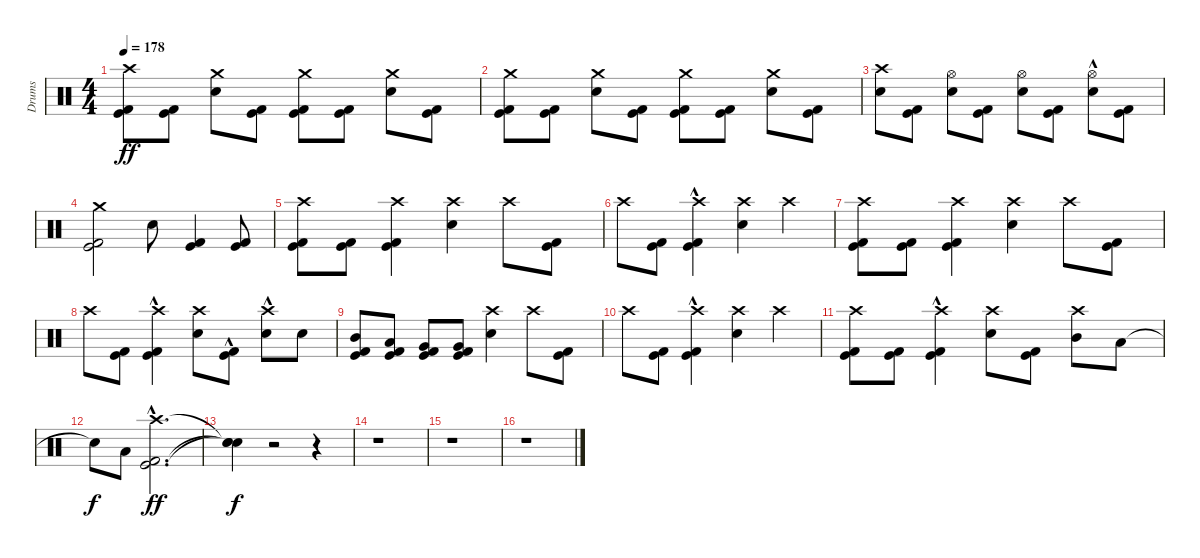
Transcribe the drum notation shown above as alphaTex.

\track ("Drums" "Drums") {instrument percussion}
\staff {score}
\articulation defaults
\ts (4 4)
\tempo 178
\clef neutral
\ks c
("Kick (hit)" "Kick (hit) 2" "Crash high (hit)").8{dy ff} ("Kick (hit)" "Kick (hit) 2").8 ("Electric Snare (hit)" "Crash medium (hit)").8 ("Kick (hit)" "Kick (hit) 2").8 ("Kick (hit)" "Kick (hit) 2" "Crash medium (hit)").8 ("Kick (hit)" "Kick (hit) 2").8 ("Electric Snare (hit)" "Crash medium (hit)").8 ("Kick (hit)" "Kick (hit) 2").8 |
("Kick (hit)" "Kick (hit) 2" "Crash medium (hit)").8 ("Kick (hit)" "Kick (hit) 2").8 ("Electric Snare (hit)" "Crash medium (hit)").8 ("Kick (hit)" "Kick (hit) 2").8 ("Kick (hit)" "Kick (hit) 2" "Crash medium (hit)").8 ("Kick (hit)" "Kick (hit) 2").8 ("Electric Snare (hit)" "Crash medium (hit)").8 ("Kick (hit)" "Kick (hit) 2").8 |
("Electric Snare (hit)" "Crash high (hit)").8 ("Kick (hit)" "Kick (hit) 2").8 ("Electric Snare (hit)" "Hi-Hat (open)").8 ("Kick (hit)" "Kick (hit) 2").8 ("Electric Snare (hit)" "Hi-Hat (open)").8 ("Kick (hit)" "Kick (hit) 2").8 ("Electric Snare (hit)"{hac} "Hi-Hat (open)").8 ("Kick (hit)" "Kick (hit) 2").8 |
("Kick (hit)" "Kick (hit) 2" "Crash medium (hit)").2 "Electric Snare (hit)".8 ("Kick (hit)" "Kick (hit) 2").4 ("Kick (hit)" "Kick (hit) 2").8 |
("Kick (hit)" "Kick (hit) 2" "Crash high (hit)").8 ("Kick (hit)" "Kick (hit) 2").8 ("Kick (hit)" "Kick (hit) 2" "Crash high (hit)").4 ("Electric Snare (hit)" "Crash high (hit)").4 "Crash high (hit)".8 ("Kick (hit)" "Kick (hit) 2").8 |
"Crash high (hit)".8 ("Kick (hit)" "Kick (hit) 2").8 ("Kick (hit)"{hac} "Kick (hit) 2"{hac} "Crash high (hit)").4 ("Electric Snare (hit)" "Crash high (hit)").4 "Crash high (hit)".4 |
("Kick (hit)" "Kick (hit) 2" "Crash high (hit)").8 ("Kick (hit)" "Kick (hit) 2").8 ("Kick (hit)" "Kick (hit) 2" "Crash high (hit)").4 ("Electric Snare (hit)" "Crash high (hit)").4 "Crash high (hit)".8 ("Kick (hit)" "Kick (hit) 2").8 |
"Crash high (hit)".8 ("Kick (hit)" "Kick (hit) 2").8 ("Kick (hit)"{hac} "Kick (hit) 2"{hac} "Crash high (hit)").4 ("Electric Snare (hit)" "Crash high (hit)").8 ("Kick (hit)"{hac} "Kick (hit) 2"{hac}).8 ("Electric Snare (hit)" "Crash high (hit)"{hac}).8 "Electric Snare (hit)".8 |
("Kick (hit)" "Kick (hit) 2" "Mid Tom (hit)").8 ("Kick (hit)" "Kick (hit) 2" "Low Tom (hit)").8 ("Kick (hit)" "Kick (hit) 2" "Very Low Tom (hit)").8 ("Kick (hit)" "Kick (hit) 2" "Very Low Tom (hit)").8 ("Electric Snare (hit)" "Crash high (hit)").4 "Crash high (hit)".8 ("Kick (hit)" "Kick (hit) 2").8 |
"Crash high (hit)".8 ("Kick (hit)" "Kick (hit) 2").8 ("Kick (hit)"{hac} "Kick (hit) 2"{hac} "Crash high (hit)").4 ("Electric Snare (hit)" "Crash high (hit)").4 "Crash high (hit)".4 |
("Kick (hit)" "Kick (hit) 2" "Crash high (hit)").8 ("Kick (hit)" "Kick (hit) 2").8 ("Kick (hit)"{hac} "Kick (hit) 2"{hac} "Crash high (hit)").4 ("Electric Snare (hit)" "Crash high (hit)").8 ("Kick (hit)" "Kick (hit) 2").8 ("Mid Tom (hit)" "Crash high (hit)").8 "Low Tom (hit)".8 |
"Snare (hit)"{t}.8{dy f} "Low Tom (hit)".8 ("Kick (hit)"{hac} "Kick (hit) 2"{hac} "Crash high (hit)"{hac}).2{d dy ff} |
("Snare (hit)"{t} "Snare (hit)"{t} "Snare (hit)"{t}).4{dy f} r.2 r.4 |
r.1 |
r.1 |
r.1
